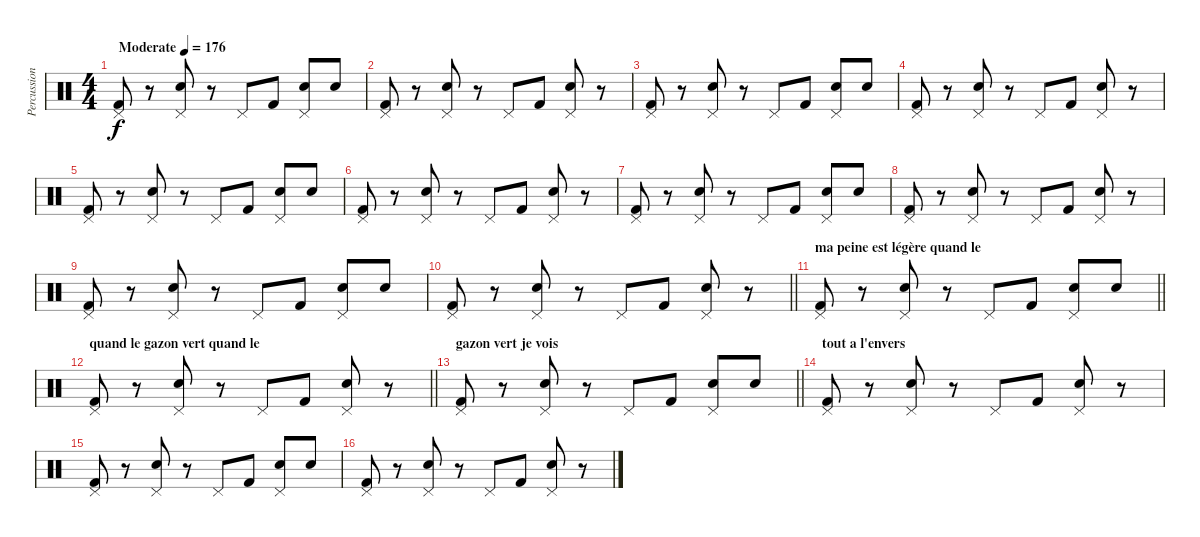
\track ("Percussions" "Percussion") {instrument percussion}
\staff {score}
\articulation defaults
\ts (4 4)
\tempo (176 "Moderate")
\clef neutral
\ks c
("Pedal Hi-Hat (hit)" "Kick (hit) 2").8{dy f} r.8 ("Pedal Hi-Hat (hit)" "Snare (hit) 2").8 r.8 "Pedal Hi-Hat (hit)".8 "Kick (hit) 2".8 ("Pedal Hi-Hat (hit)" "Snare (hit) 2").8 "Snare (hit) 2".8 |
("Pedal Hi-Hat (hit)" "Kick (hit) 2").8 r.8 ("Pedal Hi-Hat (hit)" "Snare (hit) 2").8 r.8 "Pedal Hi-Hat (hit)".8 "Kick (hit) 2".8 ("Pedal Hi-Hat (hit)" "Snare (hit) 2").8 r.8 |
("Pedal Hi-Hat (hit)" "Kick (hit) 2").8 r.8 ("Pedal Hi-Hat (hit)" "Snare (hit) 2").8 r.8 "Pedal Hi-Hat (hit)".8 "Kick (hit) 2".8 ("Pedal Hi-Hat (hit)" "Snare (hit) 2").8 "Snare (hit) 2".8 |
("Pedal Hi-Hat (hit)" "Kick (hit) 2").8 r.8 ("Pedal Hi-Hat (hit)" "Snare (hit) 2").8 r.8 "Pedal Hi-Hat (hit)".8 "Kick (hit) 2".8 ("Pedal Hi-Hat (hit)" "Snare (hit) 2").8 r.8 |
("Pedal Hi-Hat (hit)" "Kick (hit) 2").8 r.8 ("Pedal Hi-Hat (hit)" "Snare (hit) 2").8 r.8 "Pedal Hi-Hat (hit)".8 "Kick (hit) 2".8 ("Pedal Hi-Hat (hit)" "Snare (hit) 2").8 "Snare (hit) 2".8 |
("Pedal Hi-Hat (hit)" "Kick (hit) 2").8 r.8 ("Pedal Hi-Hat (hit)" "Snare (hit) 2").8 r.8 "Pedal Hi-Hat (hit)".8 "Kick (hit) 2".8 ("Pedal Hi-Hat (hit)" "Snare (hit) 2").8 r.8 |
("Pedal Hi-Hat (hit)" "Kick (hit) 2").8 r.8 ("Pedal Hi-Hat (hit)" "Snare (hit) 2").8 r.8 "Pedal Hi-Hat (hit)".8 "Kick (hit) 2".8 ("Pedal Hi-Hat (hit)" "Snare (hit) 2").8 "Snare (hit) 2".8 |
("Pedal Hi-Hat (hit)" "Kick (hit) 2").8 r.8 ("Pedal Hi-Hat (hit)" "Snare (hit) 2").8 r.8 "Pedal Hi-Hat (hit)".8 "Kick (hit) 2".8 ("Pedal Hi-Hat (hit)" "Snare (hit) 2").8 r.8 |
("Pedal Hi-Hat (hit)" "Kick (hit) 2").8 r.8 ("Pedal Hi-Hat (hit)" "Snare (hit) 2").8 r.8 "Pedal Hi-Hat (hit)".8 "Kick (hit) 2".8 ("Pedal Hi-Hat (hit)" "Snare (hit) 2").8 "Snare (hit) 2".8 |
\barLineRight lightlight
("Pedal Hi-Hat (hit)" "Kick (hit) 2").8 r.8 ("Pedal Hi-Hat (hit)" "Snare (hit) 2").8 r.8 "Pedal Hi-Hat (hit)".8 "Kick (hit) 2".8 ("Pedal Hi-Hat (hit)" "Snare (hit) 2").8 r.8 |
\section ("" "ma peine est légère quand le")
\barLineRight lightlight
("Pedal Hi-Hat (hit)" "Kick (hit) 2").8 r.8 ("Pedal Hi-Hat (hit)" "Snare (hit) 2").8 r.8 "Pedal Hi-Hat (hit)".8 "Kick (hit) 2".8 ("Pedal Hi-Hat (hit)" "Snare (hit) 2").8 "Snare (hit) 2".8 |
\section ("" "quand le gazon vert quand le")
\barLineRight lightlight
("Pedal Hi-Hat (hit)" "Kick (hit) 2").8 r.8 ("Pedal Hi-Hat (hit)" "Snare (hit) 2").8 r.8 "Pedal Hi-Hat (hit)".8 "Kick (hit) 2".8 ("Pedal Hi-Hat (hit)" "Snare (hit) 2").8 r.8 |
\section ("" "gazon vert je vois")
\barLineRight lightlight
("Pedal Hi-Hat (hit)" "Kick (hit) 2").8 r.8 ("Pedal Hi-Hat (hit)" "Snare (hit) 2").8 r.8 "Pedal Hi-Hat (hit)".8 "Kick (hit) 2".8 ("Pedal Hi-Hat (hit)" "Snare (hit) 2").8 "Snare (hit) 2".8 |
\section ("" "tout a l'envers")
("Pedal Hi-Hat (hit)" "Kick (hit) 2").8 r.8 ("Pedal Hi-Hat (hit)" "Snare (hit) 2").8 r.8 "Pedal Hi-Hat (hit)".8 "Kick (hit) 2".8 ("Pedal Hi-Hat (hit)" "Snare (hit) 2").8 r.8 |
("Pedal Hi-Hat (hit)" "Kick (hit) 2").8 r.8 ("Pedal Hi-Hat (hit)" "Snare (hit) 2").8 r.8 "Pedal Hi-Hat (hit)".8 "Kick (hit) 2".8 ("Pedal Hi-Hat (hit)" "Snare (hit) 2").8 "Snare (hit) 2".8 |
("Pedal Hi-Hat (hit)" "Kick (hit) 2").8 r.8 ("Pedal Hi-Hat (hit)" "Snare (hit) 2").8 r.8 "Pedal Hi-Hat (hit)".8 "Kick (hit) 2".8 ("Pedal Hi-Hat (hit)" "Snare (hit) 2").8 r.8
